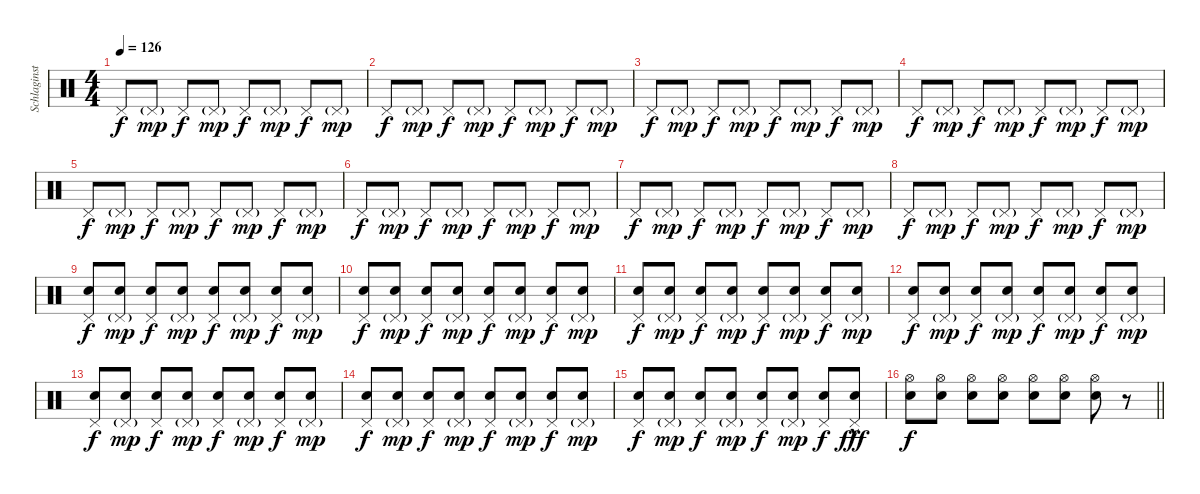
\track ("Schlaginstrumente - Auswahl" "Schlaginst") {instrument percussion}
\staff {score}
\articulation defaults
\ts (4 4)
\tempo 126
\clef neutral
\ks c "Pedal Hi-Hat (hit)".8{dy f} "Pedal Hi-Hat (hit)"{g}.8{dy mp} "Pedal Hi-Hat (hit)".8{dy f} "Pedal Hi-Hat (hit)"{g}.8{dy mp} "Pedal Hi-Hat (hit)".8{dy f} "Pedal Hi-Hat (hit)"{g}.8{dy mp} "Pedal Hi-Hat (hit)".8{dy f} "Pedal Hi-Hat (hit)"{g}.8{dy mp}
|
"Pedal Hi-Hat (hit)".8{dy f} "Pedal Hi-Hat (hit)"{g}.8{dy mp} "Pedal Hi-Hat (hit)".8{dy f} "Pedal Hi-Hat (hit)"{g}.8{dy mp} "Pedal Hi-Hat (hit)".8{dy f} "Pedal Hi-Hat (hit)"{g}.8{dy mp} "Pedal Hi-Hat (hit)".8{dy f} "Pedal Hi-Hat (hit)"{g}.8{dy mp} |
"Pedal Hi-Hat (hit)".8{dy f} "Pedal Hi-Hat (hit)"{g}.8{dy mp} "Pedal Hi-Hat (hit)".8{dy f} "Pedal Hi-Hat (hit)"{g}.8{dy mp} "Pedal Hi-Hat (hit)".8{dy f} "Pedal Hi-Hat (hit)"{g}.8{dy mp} "Pedal Hi-Hat (hit)".8{dy f} "Pedal Hi-Hat (hit)"{g}.8{dy mp} |
"Pedal Hi-Hat (hit)".8{dy f} "Pedal Hi-Hat (hit)"{g}.8{dy mp} "Pedal Hi-Hat (hit)".8{dy f} "Pedal Hi-Hat (hit)"{g}.8{dy mp} "Pedal Hi-Hat (hit)".8{dy f} "Pedal Hi-Hat (hit)"{g}.8{dy mp} "Pedal Hi-Hat (hit)".8{dy f} "Pedal Hi-Hat (hit)"{g}.8{dy mp} |
"Pedal Hi-Hat (hit)".8{dy f} "Pedal Hi-Hat (hit)"{g}.8{dy mp} "Pedal Hi-Hat (hit)".8{dy f} "Pedal Hi-Hat (hit)"{g}.8{dy mp} "Pedal Hi-Hat (hit)".8{dy f} "Pedal Hi-Hat (hit)"{g}.8{dy mp} "Pedal Hi-Hat (hit)".8{dy f} "Pedal Hi-Hat (hit)"{g}.8{dy mp} |
"Pedal Hi-Hat (hit)".8{dy f} "Pedal Hi-Hat (hit)"{g}.8{dy mp} "Pedal Hi-Hat (hit)".8{dy f} "Pedal Hi-Hat (hit)"{g}.8{dy mp} "Pedal Hi-Hat (hit)".8{dy f} "Pedal Hi-Hat (hit)"{g}.8{dy mp} "Pedal Hi-Hat (hit)".8{dy f} "Pedal Hi-Hat (hit)"{g}.8{dy mp} |
"Pedal Hi-Hat (hit)".8{dy f} "Pedal Hi-Hat (hit)"{g}.8{dy mp} "Pedal Hi-Hat (hit)".8{dy f} "Pedal Hi-Hat (hit)"{g}.8{dy mp} "Pedal Hi-Hat (hit)".8{dy f} "Pedal Hi-Hat (hit)"{g}.8{dy mp} "Pedal Hi-Hat (hit)".8{dy f} "Pedal Hi-Hat (hit)"{g}.8{dy mp} |
"Pedal Hi-Hat (hit)".8{dy f} "Pedal Hi-Hat (hit)"{g}.8{dy mp} "Pedal Hi-Hat (hit)".8{dy f} "Pedal Hi-Hat (hit)"{g}.8{dy mp} "Pedal Hi-Hat (hit)".8{dy f} "Pedal Hi-Hat (hit)"{g}.8{dy mp} "Pedal Hi-Hat (hit)".8{dy f} "Pedal Hi-Hat (hit)"{g}.8{dy mp volume 4} |
("Electric Snare (hit)" "Pedal Hi-Hat (hit)").8{dy f volume 6} ("Electric Snare (hit)" "Pedal Hi-Hat (hit)"{g}).8{dy mp} ("Electric Snare (hit)" "Pedal Hi-Hat (hit)").8{dy f} ("Electric Snare (hit)" "Pedal Hi-Hat (hit)"{g}).8{dy mp} ("Electric Snare (hit)" "Pedal Hi-Hat (hit)").8{dy f} ("Electric Snare (hit)" "Pedal Hi-Hat (hit)"{g}).8{dy mp} ("Electric Snare (hit)" "Pedal Hi-Hat (hit)").8{dy f} ("Electric Snare (hit)" "Pedal Hi-Hat (hit)"{g}).8{dy mp} |
("Electric Snare (hit)" "Pedal Hi-Hat (hit)").8{dy f volume 8} ("Electric Snare (hit)" "Pedal Hi-Hat (hit)"{g}).8{dy mp} ("Electric Snare (hit)" "Pedal Hi-Hat (hit)").8{dy f} ("Electric Snare (hit)" "Pedal Hi-Hat (hit)"{g}).8{dy mp} ("Electric Snare (hit)" "Pedal Hi-Hat (hit)").8{dy f} ("Electric Snare (hit)" "Pedal Hi-Hat (hit)"{g}).8{dy mp} ("Electric Snare (hit)" "Pedal Hi-Hat (hit)").8{dy f} ("Electric Snare (hit)" "Pedal Hi-Hat (hit)"{g}).8{dy mp} |
("Electric Snare (hit)" "Pedal Hi-Hat (hit)").8{dy f volume 10} ("Electric Snare (hit)" "Pedal Hi-Hat (hit)"{g}).8{dy mp} ("Electric Snare (hit)" "Pedal Hi-Hat (hit)").8{dy f} ("Electric Snare (hit)" "Pedal Hi-Hat (hit)"{g}).8{dy mp} ("Electric Snare (hit)" "Pedal Hi-Hat (hit)").8{dy f} ("Electric Snare (hit)" "Pedal Hi-Hat (hit)"{g}).8{dy mp} ("Electric Snare (hit)" "Pedal Hi-Hat (hit)").8{dy f} ("Electric Snare (hit)" "Pedal Hi-Hat (hit)"{g}).8{dy mp} |
("Electric Snare (hit)" "Pedal Hi-Hat (hit)").8{dy f} ("Electric Snare (hit)" "Pedal Hi-Hat (hit)"{g}).8{dy mp} ("Electric Snare (hit)" "Pedal Hi-Hat (hit)").8{dy f} ("Electric Snare (hit)" "Pedal Hi-Hat (hit)"{g}).8{dy mp} ("Electric Snare (hit)" "Pedal Hi-Hat (hit)").8{dy f} ("Electric Snare (hit)" "Pedal Hi-Hat (hit)"{g}).8{dy mp} ("Electric Snare (hit)" "Pedal Hi-Hat (hit)").8{dy f} ("Electric Snare (hit)" "Pedal Hi-Hat (hit)"{g}).8{dy mp} |
("Electric Snare (hit)" "Pedal Hi-Hat (hit)").8{dy f} ("Electric Snare (hit)" "Pedal Hi-Hat (hit)"{g}).8{dy mp} ("Electric Snare (hit)" "Pedal Hi-Hat (hit)").8{dy f} ("Electric Snare (hit)" "Pedal Hi-Hat (hit)"{g}).8{dy mp} ("Electric Snare (hit)" "Pedal Hi-Hat (hit)").8{dy f} ("Electric Snare (hit)" "Pedal Hi-Hat (hit)"{g}).8{dy mp} ("Electric Snare (hit)" "Pedal Hi-Hat (hit)").8{dy f} ("Electric Snare (hit)" "Pedal Hi-Hat (hit)"{g}).8{dy mp} |
("Electric Snare (hit)" "Pedal Hi-Hat (hit)").8{dy f} ("Electric Snare (hit)" "Pedal Hi-Hat (hit)"{g}).8{dy mp} ("Electric Snare (hit)" "Pedal Hi-Hat (hit)").8{dy f} ("Electric Snare (hit)" "Pedal Hi-Hat (hit)"{g}).8{dy mp} ("Electric Snare (hit)" "Pedal Hi-Hat (hit)").8{dy f} ("Electric Snare (hit)" "Pedal Hi-Hat (hit)"{g}).8{dy mp} ("Electric Snare (hit)" "Pedal Hi-Hat (hit)").8{dy f} ("Electric Snare (hit)" "Pedal Hi-Hat (hit)"{g}).8{dy mp} |
("Electric Snare (hit)" "Pedal Hi-Hat (hit)").8{dy f} ("Electric Snare (hit)" "Pedal Hi-Hat (hit)"{g}).8{dy mp} ("Electric Snare (hit)" "Pedal Hi-Hat (hit)").8{dy f} ("Electric Snare (hit)" "Pedal Hi-Hat (hit)"{g}).8{dy mp} ("Electric Snare (hit)" "Pedal Hi-Hat (hit)").8{dy f} ("Electric Snare (hit)" "Pedal Hi-Hat (hit)"{g}).8{dy mp} ("Electric Snare (hit)" "Pedal Hi-Hat (hit)").8{dy f} ("Electric Snare (hit)" "Pedal Hi-Hat (hit)"{hac}).8{dy fff} |
\barLineRight lightlight
("Electric Snare (hit)" "Hi-Hat (open)").8{dy f} ("Electric Snare (hit)" "Hi-Hat (open)").8 ("Electric Snare (hit)" "Hi-Hat (open)").8 ("Electric Snare (hit)" "Hi-Hat (open)").8 ("Electric Snare (hit)" "Hi-Hat (open)").8 ("Electric Snare (hit)" "Hi-Hat (open)").8 ("Hi-Hat (open)" "Electric Snare (hit)").8 r.8
